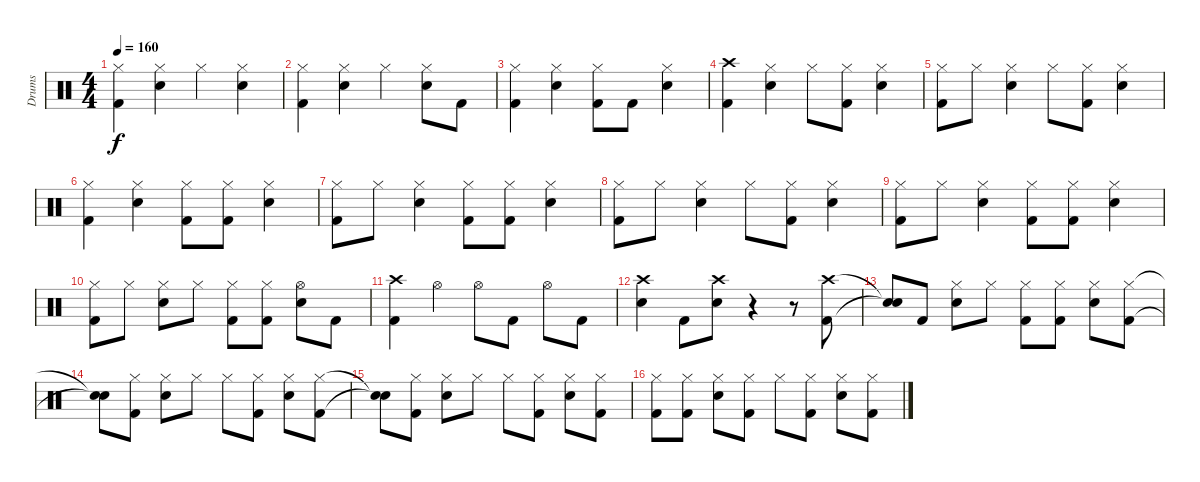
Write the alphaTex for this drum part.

\track ("Drums" "Drums") {instrument percussion}
\staff {score}
\articulation defaults
\ts (4 4)
\tempo 160
\clef neutral
\ks c
("Hi-Hat (closed)" "Kick (hit) 2").4{dy f} ("Hi-Hat (closed)" "Snare (hit) 2").4 "Hi-Hat (closed)".4 ("Hi-Hat (closed)" "Snare (hit) 2").4 |
("Hi-Hat (closed)" "Kick (hit) 2").4 ("Hi-Hat (closed)" "Snare (hit) 2").4 "Hi-Hat (closed)".4 ("Hi-Hat (closed)" "Snare (hit) 2").8 "Kick (hit) 2".8 |
("Hi-Hat (closed)" "Kick (hit) 2").4 ("Hi-Hat (closed)" "Snare (hit) 2").4 ("Hi-Hat (closed)" "Kick (hit) 2").8 "Kick (hit) 2".8 ("Hi-Hat (closed)" "Snare (hit) 2").4 |
("Crash high (hit)" "Kick (hit) 2").4 ("Hi-Hat (closed)" "Snare (hit) 2").4 "Hi-Hat (closed)".8 ("Hi-Hat (closed)" "Kick (hit) 2").8 ("Hi-Hat (closed)" "Snare (hit) 2").4 |
("Hi-Hat (closed)" "Kick (hit) 2").8 "Hi-Hat (closed)".8 ("Hi-Hat (closed)" "Snare (hit) 2").4 "Hi-Hat (closed)".8 ("Hi-Hat (closed)" "Kick (hit) 2").8 ("Hi-Hat (closed)" "Snare (hit) 2").4 |
("Hi-Hat (closed)" "Kick (hit) 2").4 ("Hi-Hat (closed)" "Snare (hit) 2").4 ("Hi-Hat (closed)" "Kick (hit) 2").8 ("Hi-Hat (closed)" "Kick (hit) 2").8 ("Hi-Hat (closed)" "Snare (hit) 2").4 |
("Hi-Hat (closed)" "Kick (hit) 2").8 "Hi-Hat (closed)".8 ("Hi-Hat (closed)" "Snare (hit) 2").4 ("Hi-Hat (closed)" "Kick (hit) 2").8 ("Hi-Hat (closed)" "Kick (hit) 2").8 ("Hi-Hat (closed)" "Snare (hit) 2").4 |
("Hi-Hat (closed)" "Kick (hit) 2").8 "Hi-Hat (closed)".8 ("Hi-Hat (closed)" "Snare (hit) 2").4 "Hi-Hat (closed)".8 ("Hi-Hat (closed)" "Kick (hit) 2").8 ("Hi-Hat (closed)" "Snare (hit) 2").4 |
("Hi-Hat (closed)" "Kick (hit) 2").8 "Hi-Hat (closed)".8 ("Hi-Hat (closed)" "Snare (hit) 2").4 ("Hi-Hat (closed)" "Kick (hit) 2").8 ("Hi-Hat (closed)" "Kick (hit) 2").8 ("Hi-Hat (closed)" "Snare (hit) 2").4 |
("Hi-Hat (closed)" "Kick (hit) 2").8 "Hi-Hat (closed)".8 ("Hi-Hat (closed)" "Snare (hit) 2").8 "Hi-Hat (closed)".8 ("Hi-Hat (closed)" "Kick (hit) 2").8 ("Hi-Hat (closed)" "Kick (hit) 2").8 ("Hi-Hat (open)" "Snare (hit) 2").8 "Kick (hit) 2".8 |
("Crash high (hit)" "Kick (hit) 2").4 "Hi-Hat (open)".4 "Hi-Hat (open)".8 "Kick (hit) 2".8 "Hi-Hat (open)".8 "Kick (hit) 2".8 |
("Crash high (hit)" "Snare (hit) 2").4 "Kick (hit) 2".8 ("Crash high (hit)" "Snare (hit) 2").8 r.4 r.8 ("Crash high (hit)" "Kick (hit) 2").8 |
("Snare (hit)"{t} "Snare (hit)"{t}).8 "Kick (hit) 2".8 ("Hi-Hat (closed)" "Snare (hit) 2").8 "Hi-Hat (closed)".8 ("Hi-Hat (closed)" "Kick (hit) 2").8 ("Hi-Hat (closed)" "Kick (hit) 2").8 ("Hi-Hat (closed)" "Snare (hit) 2").8 ("Hi-Hat (closed)" "Kick (hit) 2").8 |
("Snare (hit)"{t} "Snare (hit)"{t}).8 ("Hi-Hat (closed)" "Kick (hit) 2").8 ("Hi-Hat (closed)" "Snare (hit) 2").8 "Hi-Hat (closed)".8 "Hi-Hat (closed)".8 ("Hi-Hat (closed)" "Kick (hit) 2").8 ("Hi-Hat (closed)" "Snare (hit) 2").8 ("Hi-Hat (closed)" "Kick (hit) 2").8 |
("Snare (hit)"{t} "Snare (hit)"{t}).8 ("Hi-Hat (closed)" "Kick (hit) 2").8 ("Hi-Hat (closed)" "Snare (hit) 2").8 "Hi-Hat (closed)".8 "Hi-Hat (closed)".8 ("Hi-Hat (closed)" "Kick (hit) 2").8 ("Hi-Hat (closed)" "Snare (hit) 2").8 ("Hi-Hat (closed)" "Kick (hit) 2").8 |
("Hi-Hat (closed)" "Kick (hit) 2").8 ("Hi-Hat (closed)" "Kick (hit) 2").8 ("Hi-Hat (closed)" "Snare (hit) 2").8 ("Hi-Hat (closed)" "Kick (hit) 2").8 "Hi-Hat (closed)".8 ("Hi-Hat (closed)" "Kick (hit) 2").8 ("Hi-Hat (closed)" "Snare (hit) 2").8 ("Hi-Hat (closed)" "Kick (hit) 2").8
